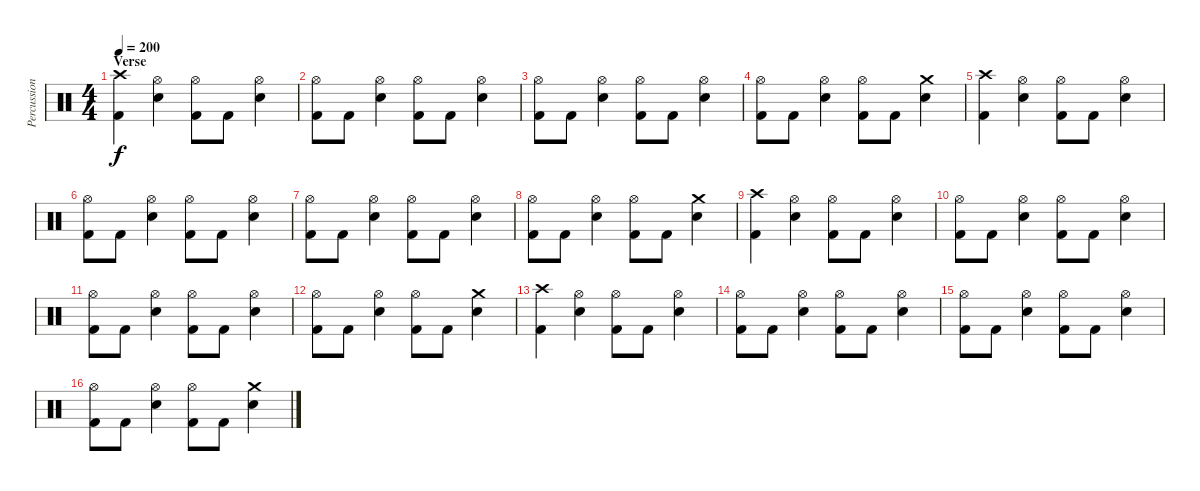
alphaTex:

\track ("Percussion" "Percussion") {instrument percussion}
\staff {score}
\articulation defaults
\ts (4 4)
\section ("" "Verse")
\tempo 200
\clef neutral
\ks c
("Crash high (hit)" "Kick (hit) 2").4{dy f} ("Hi-Hat (open)" "Snare (hit) 2").4 ("Hi-Hat (open)" "Kick (hit) 2").8 "Kick (hit) 2".8 ("Hi-Hat (open)" "Snare (hit) 2").4 |
("Hi-Hat (open)" "Kick (hit) 2").8 "Kick (hit) 2".8 ("Hi-Hat (open)" "Snare (hit) 2").4 ("Hi-Hat (open)" "Kick (hit) 2").8 "Kick (hit) 2".8 ("Hi-Hat (open)" "Snare (hit) 2").4 |
("Hi-Hat (open)" "Kick (hit) 2").8 "Kick (hit) 2".8 ("Hi-Hat (open)" "Snare (hit) 2").4 ("Hi-Hat (open)" "Kick (hit) 2").8 "Kick (hit) 2".8 ("Hi-Hat (open)" "Snare (hit) 2").4 |
("Hi-Hat (open)" "Kick (hit) 2").8 "Kick (hit) 2".8 ("Hi-Hat (open)" "Snare (hit) 2").4 ("Hi-Hat (open)" "Kick (hit) 2").8 "Kick (hit) 2".8 ("Crash medium (hit)" "Snare (hit) 2").4 |
("Crash high (hit)" "Kick (hit) 2").4 ("Hi-Hat (open)" "Snare (hit) 2").4 ("Hi-Hat (open)" "Kick (hit) 2").8 "Kick (hit) 2".8 ("Hi-Hat (open)" "Snare (hit) 2").4 |
("Hi-Hat (open)" "Kick (hit) 2").8 "Kick (hit) 2".8 ("Hi-Hat (open)" "Snare (hit) 2").4 ("Hi-Hat (open)" "Kick (hit) 2").8 "Kick (hit) 2".8 ("Hi-Hat (open)" "Snare (hit) 2").4 |
("Hi-Hat (open)" "Kick (hit) 2").8 "Kick (hit) 2".8 ("Hi-Hat (open)" "Snare (hit) 2").4 ("Hi-Hat (open)" "Kick (hit) 2").8 "Kick (hit) 2".8 ("Hi-Hat (open)" "Snare (hit) 2").4 |
("Hi-Hat (open)" "Kick (hit) 2").8 "Kick (hit) 2".8 ("Hi-Hat (open)" "Snare (hit) 2").4 ("Hi-Hat (open)" "Kick (hit) 2").8 "Kick (hit) 2".8 ("Crash medium (hit)" "Snare (hit) 2").4 |
("Crash high (hit)" "Kick (hit) 2").4 ("Hi-Hat (open)" "Snare (hit) 2").4 ("Hi-Hat (open)" "Kick (hit) 2").8 "Kick (hit) 2".8 ("Hi-Hat (open)" "Snare (hit) 2").4 |
("Hi-Hat (open)" "Kick (hit) 2").8 "Kick (hit) 2".8 ("Hi-Hat (open)" "Snare (hit) 2").4 ("Hi-Hat (open)" "Kick (hit) 2").8 "Kick (hit) 2".8 ("Hi-Hat (open)" "Snare (hit) 2").4 |
("Hi-Hat (open)" "Kick (hit) 2").8 "Kick (hit) 2".8 ("Hi-Hat (open)" "Snare (hit) 2").4 ("Hi-Hat (open)" "Kick (hit) 2").8 "Kick (hit) 2".8 ("Hi-Hat (open)" "Snare (hit) 2").4 |
("Hi-Hat (open)" "Kick (hit) 2").8 "Kick (hit) 2".8 ("Hi-Hat (open)" "Snare (hit) 2").4 ("Hi-Hat (open)" "Kick (hit) 2").8 "Kick (hit) 2".8 ("Crash medium (hit)" "Snare (hit) 2").4 |
("Crash high (hit)" "Kick (hit) 2").4 ("Hi-Hat (open)" "Snare (hit) 2").4 ("Hi-Hat (open)" "Kick (hit) 2").8 "Kick (hit) 2".8 ("Hi-Hat (open)" "Snare (hit) 2").4 |
("Hi-Hat (open)" "Kick (hit) 2").8 "Kick (hit) 2".8 ("Hi-Hat (open)" "Snare (hit) 2").4 ("Hi-Hat (open)" "Kick (hit) 2").8 "Kick (hit) 2".8 ("Hi-Hat (open)" "Snare (hit) 2").4 |
("Hi-Hat (open)" "Kick (hit) 2").8 "Kick (hit) 2".8 ("Hi-Hat (open)" "Snare (hit) 2").4 ("Hi-Hat (open)" "Kick (hit) 2").8 "Kick (hit) 2".8 ("Hi-Hat (open)" "Snare (hit) 2").4 |
("Hi-Hat (open)" "Kick (hit) 2").8 "Kick (hit) 2".8 ("Hi-Hat (open)" "Snare (hit) 2").4 ("Hi-Hat (open)" "Kick (hit) 2").8 "Kick (hit) 2".8 ("Crash medium (hit)" "Snare (hit) 2").4
